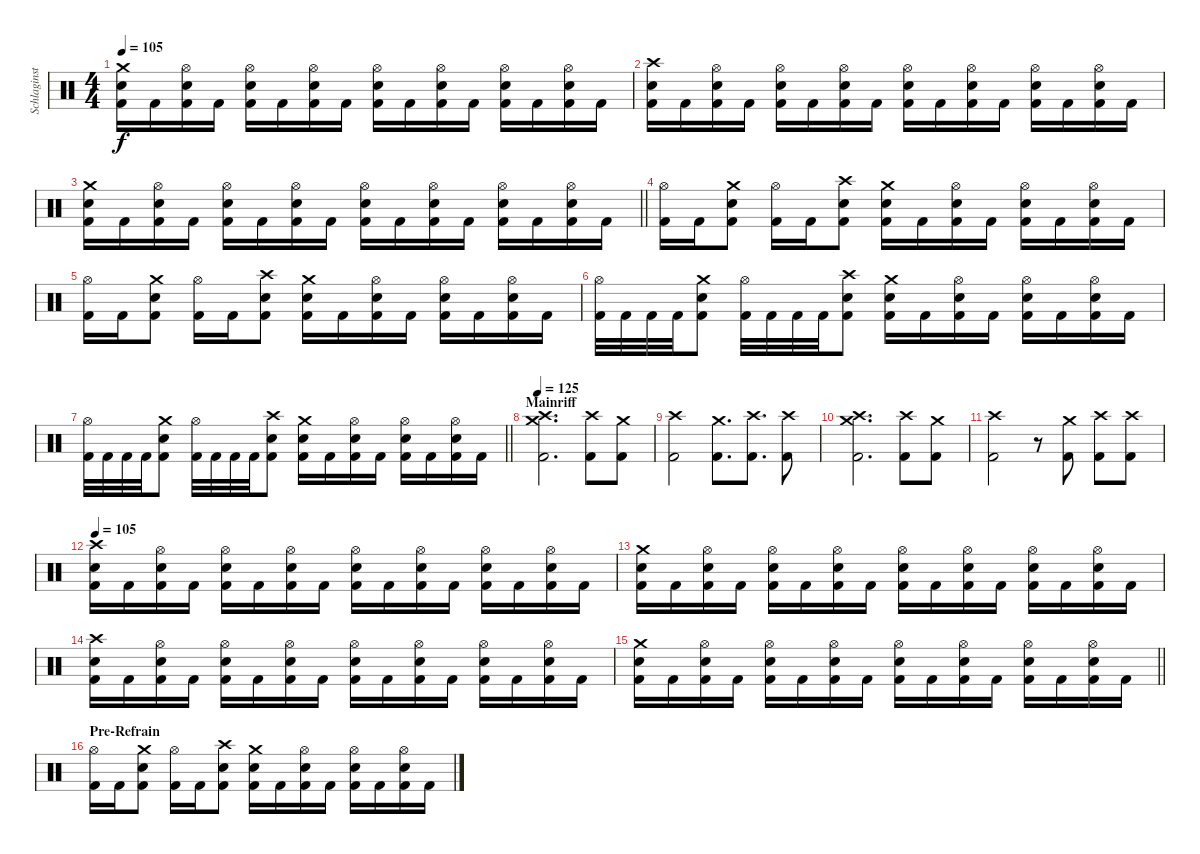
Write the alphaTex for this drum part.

\track ("Schlaginstrumente - Auswahl" "Schlaginst") {instrument percussion}
\staff {score}
\articulation defaults
\ts (4 4)
\tempo 105
\clef neutral
\ks c
("Crash medium (hit)" "Electric Snare (hit)" "Kick (hit) 2").16{dy f} "Kick (hit) 2".16 ("Hi-Hat (open)" "Electric Snare (hit)" "Kick (hit) 2").16 "Kick (hit) 2".16 ("Hi-Hat (open)" "Electric Snare (hit)" "Kick (hit) 2").16 "Kick (hit) 2".16 ("Hi-Hat (open)" "Electric Snare (hit)" "Kick (hit) 2").16 "Kick (hit) 2".16 ("Hi-Hat (open)" "Electric Snare (hit)" "Kick (hit) 2").16 "Kick (hit) 2".16 ("Hi-Hat (open)" "Electric Snare (hit)" "Kick (hit) 2").16 "Kick (hit) 2".16 ("Hi-Hat (open)" "Electric Snare (hit)" "Kick (hit) 2").16 "Kick (hit) 2".16 ("Hi-Hat (open)" "Electric Snare (hit)" "Kick (hit) 2").16 "Kick (hit) 2".16 |
("Crash high (hit)" "Electric Snare (hit)" "Kick (hit) 2").16 "Kick (hit) 2".16 ("Hi-Hat (open)" "Electric Snare (hit)" "Kick (hit) 2").16 "Kick (hit) 2".16 ("Hi-Hat (open)" "Electric Snare (hit)" "Kick (hit) 2").16 "Kick (hit) 2".16 ("Hi-Hat (open)" "Electric Snare (hit)" "Kick (hit) 2").16 "Kick (hit) 2".16 ("Hi-Hat (open)" "Electric Snare (hit)" "Kick (hit) 2").16 "Kick (hit) 2".16 ("Hi-Hat (open)" "Electric Snare (hit)" "Kick (hit) 2").16 "Kick (hit) 2".16 ("Hi-Hat (open)" "Electric Snare (hit)" "Kick (hit) 2").16 "Kick (hit) 2".16 ("Hi-Hat (open)" "Electric Snare (hit)" "Kick (hit) 2").16 "Kick (hit) 2".16 |
\barLineRight lightlight
("Crash medium (hit)" "Electric Snare (hit)" "Kick (hit) 2").16 "Kick (hit) 2".16 ("Hi-Hat (open)" "Electric Snare (hit)" "Kick (hit) 2").16 "Kick (hit) 2".16 ("Hi-Hat (open)" "Electric Snare (hit)" "Kick (hit) 2").16 "Kick (hit) 2".16 ("Hi-Hat (open)" "Electric Snare (hit)" "Kick (hit) 2").16 "Kick (hit) 2".16 ("Hi-Hat (open)" "Electric Snare (hit)" "Kick (hit) 2").16 "Kick (hit) 2".16 ("Hi-Hat (open)" "Electric Snare (hit)" "Kick (hit) 2").16 "Kick (hit) 2".16 ("Hi-Hat (open)" "Electric Snare (hit)" "Kick (hit) 2").16 "Kick (hit) 2".16 ("Hi-Hat (open)" "Electric Snare (hit)" "Kick (hit) 2").16 "Kick (hit) 2".16 |
("Hi-Hat (open)" "Kick (hit) 2").16 "Kick (hit) 2".16 ("Crash medium (hit)" "Electric Snare (hit)" "Kick (hit) 2").8 ("Hi-Hat (open)" "Kick (hit) 2").16 "Kick (hit) 2".16 ("Crash high (hit)" "Electric Snare (hit)" "Kick (hit) 2").8 ("Crash medium (hit)" "Electric Snare (hit)" "Kick (hit) 2").16 "Kick (hit) 2".16 ("Hi-Hat (open)" "Electric Snare (hit)" "Kick (hit) 2").16 "Kick (hit) 2".16 ("Hi-Hat (open)" "Electric Snare (hit)" "Kick (hit) 2").16 "Kick (hit) 2".16 ("Hi-Hat (open)" "Electric Snare (hit)" "Kick (hit) 2").16 "Kick (hit) 2".16 |
("Hi-Hat (open)" "Kick (hit) 2").16 "Kick (hit) 2".16 ("Crash medium (hit)" "Electric Snare (hit)" "Kick (hit) 2").8 ("Hi-Hat (open)" "Kick (hit) 2").16 "Kick (hit) 2".16 ("Crash high (hit)" "Electric Snare (hit)" "Kick (hit) 2").8 ("Crash medium (hit)" "Electric Snare (hit)" "Kick (hit) 2").16 "Kick (hit) 2".16 ("Hi-Hat (open)" "Electric Snare (hit)" "Kick (hit) 2").16 "Kick (hit) 2".16 ("Hi-Hat (open)" "Electric Snare (hit)" "Kick (hit) 2").16 "Kick (hit) 2".16 ("Hi-Hat (open)" "Electric Snare (hit)" "Kick (hit) 2").16 "Kick (hit) 2".16 |
("Hi-Hat (open)" "Kick (hit) 2").32 "Kick (hit) 2".32 "Kick (hit) 2".32 "Kick (hit) 2".32 ("Crash medium (hit)" "Electric Snare (hit)" "Kick (hit) 2").8 ("Hi-Hat (open)" "Kick (hit) 2").32 "Kick (hit) 2".32 "Kick (hit) 2".32 "Kick (hit) 2".32 ("Crash high (hit)" "Electric Snare (hit)" "Kick (hit) 2").8 ("Crash medium (hit)" "Electric Snare (hit)" "Kick (hit) 2").16 "Kick (hit) 2".16 ("Hi-Hat (open)" "Electric Snare (hit)" "Kick (hit) 2").16 "Kick (hit) 2".16 ("Hi-Hat (open)" "Electric Snare (hit)" "Kick (hit) 2").16 "Kick (hit) 2".16 ("Hi-Hat (open)" "Electric Snare (hit)" "Kick (hit) 2").16 "Kick (hit) 2".16 |
\barLineRight lightlight
("Hi-Hat (open)" "Kick (hit) 2").32 "Kick (hit) 2".32 "Kick (hit) 2".32 "Kick (hit) 2".32 ("Crash medium (hit)" "Electric Snare (hit)" "Kick (hit) 2").8 ("Hi-Hat (open)" "Kick (hit) 2").32 "Kick (hit) 2".32 "Kick (hit) 2".32 "Kick (hit) 2".32 ("Crash high (hit)" "Electric Snare (hit)" "Kick (hit) 2").8 ("Crash medium (hit)" "Electric Snare (hit)" "Kick (hit) 2").16 "Kick (hit) 2".16 ("Hi-Hat (open)" "Electric Snare (hit)" "Kick (hit) 2").16 "Kick (hit) 2".16 ("Hi-Hat (open)" "Electric Snare (hit)" "Kick (hit) 2").16 "Kick (hit) 2".16 ("Hi-Hat (open)" "Electric Snare (hit)" "Kick (hit) 2").16 "Kick (hit) 2".16 |
\section ("" "Mainriff")
\tempo 125
("Crash high (hit)" "Crash medium (hit)" "Kick (hit) 2").2{d} ("Crash high (hit)" "Kick (hit) 2").8 ("Crash medium (hit)" "Kick (hit) 2").8 |
("Crash high (hit)" "Kick (hit) 2").2 ("Crash medium (hit)" "Kick (hit) 2").8{d} ("Crash high (hit)" "Kick (hit) 2").8{d} ("Crash high (hit)" "Kick (hit) 2").8 |
("Crash high (hit)" "Crash medium (hit)" "Kick (hit) 2").2{d} ("Crash high (hit)" "Kick (hit) 2").8 ("Crash medium (hit)" "Kick (hit) 2").8 |
("Crash high (hit)" "Kick (hit) 2").2 r.8 ("Crash medium (hit)" "Kick (hit) 2").8 ("Crash high (hit)" "Kick (hit) 2").8 ("Crash high (hit)" "Kick (hit) 2").8 |
\tempo 105
("Crash high (hit)" "Electric Snare (hit)" "Kick (hit) 2").16 "Kick (hit) 2".16 ("Hi-Hat (open)" "Electric Snare (hit)" "Kick (hit) 2").16 "Kick (hit) 2".16 ("Hi-Hat (open)" "Electric Snare (hit)" "Kick (hit) 2").16 "Kick (hit) 2".16 ("Hi-Hat (open)" "Electric Snare (hit)" "Kick (hit) 2").16 "Kick (hit) 2".16 ("Hi-Hat (open)" "Electric Snare (hit)" "Kick (hit) 2").16 "Kick (hit) 2".16 ("Hi-Hat (open)" "Electric Snare (hit)" "Kick (hit) 2").16 "Kick (hit) 2".16 ("Hi-Hat (open)" "Electric Snare (hit)" "Kick (hit) 2").16 "Kick (hit) 2".16 ("Hi-Hat (open)" "Electric Snare (hit)" "Kick (hit) 2").16 "Kick (hit) 2".16 |
("Crash medium (hit)" "Electric Snare (hit)" "Kick (hit) 2").16 "Kick (hit) 2".16 ("Hi-Hat (open)" "Electric Snare (hit)" "Kick (hit) 2").16 "Kick (hit) 2".16 ("Hi-Hat (open)" "Electric Snare (hit)" "Kick (hit) 2").16 "Kick (hit) 2".16 ("Hi-Hat (open)" "Electric Snare (hit)" "Kick (hit) 2").16 "Kick (hit) 2".16 ("Hi-Hat (open)" "Electric Snare (hit)" "Kick (hit) 2").16 "Kick (hit) 2".16 ("Hi-Hat (open)" "Electric Snare (hit)" "Kick (hit) 2").16 "Kick (hit) 2".16 ("Hi-Hat (open)" "Electric Snare (hit)" "Kick (hit) 2").16 "Kick (hit) 2".16 ("Hi-Hat (open)" "Electric Snare (hit)" "Kick (hit) 2").16 "Kick (hit) 2".16 |
("Crash high (hit)" "Electric Snare (hit)" "Kick (hit) 2").16 "Kick (hit) 2".16 ("Hi-Hat (open)" "Electric Snare (hit)" "Kick (hit) 2").16 "Kick (hit) 2".16 ("Hi-Hat (open)" "Electric Snare (hit)" "Kick (hit) 2").16 "Kick (hit) 2".16 ("Hi-Hat (open)" "Electric Snare (hit)" "Kick (hit) 2").16 "Kick (hit) 2".16 ("Hi-Hat (open)" "Electric Snare (hit)" "Kick (hit) 2").16 "Kick (hit) 2".16 ("Hi-Hat (open)" "Electric Snare (hit)" "Kick (hit) 2").16 "Kick (hit) 2".16 ("Hi-Hat (open)" "Electric Snare (hit)" "Kick (hit) 2").16 "Kick (hit) 2".16 ("Hi-Hat (open)" "Electric Snare (hit)" "Kick (hit) 2").16 "Kick (hit) 2".16 |
\barLineRight lightlight
("Crash medium (hit)" "Electric Snare (hit)" "Kick (hit) 2").16 "Kick (hit) 2".16 ("Hi-Hat (open)" "Electric Snare (hit)" "Kick (hit) 2").16 "Kick (hit) 2".16 ("Hi-Hat (open)" "Electric Snare (hit)" "Kick (hit) 2").16 "Kick (hit) 2".16 ("Hi-Hat (open)" "Electric Snare (hit)" "Kick (hit) 2").16 "Kick (hit) 2".16 ("Hi-Hat (open)" "Electric Snare (hit)" "Kick (hit) 2").16 "Kick (hit) 2".16 ("Hi-Hat (open)" "Electric Snare (hit)" "Kick (hit) 2").16 "Kick (hit) 2".16 ("Hi-Hat (open)" "Electric Snare (hit)" "Kick (hit) 2").16 "Kick (hit) 2".16 ("Hi-Hat (open)" "Electric Snare (hit)" "Kick (hit) 2").16 "Kick (hit) 2".16 |
\section ("" "Pre-Refrain")
("Hi-Hat (open)" "Kick (hit) 2").16 "Kick (hit) 2".16 ("Crash medium (hit)" "Electric Snare (hit)" "Kick (hit) 2").8 ("Hi-Hat (open)" "Kick (hit) 2").16 "Kick (hit) 2".16 ("Crash high (hit)" "Electric Snare (hit)" "Kick (hit) 2").8 ("Crash medium (hit)" "Electric Snare (hit)" "Kick (hit) 2").16 "Kick (hit) 2".16 ("Hi-Hat (open)" "Electric Snare (hit)" "Kick (hit) 2").16 "Kick (hit) 2".16 ("Hi-Hat (open)" "Electric Snare (hit)" "Kick (hit) 2").16 "Kick (hit) 2".16 ("Hi-Hat (open)" "Electric Snare (hit)" "Kick (hit) 2").16 "Kick (hit) 2".16
